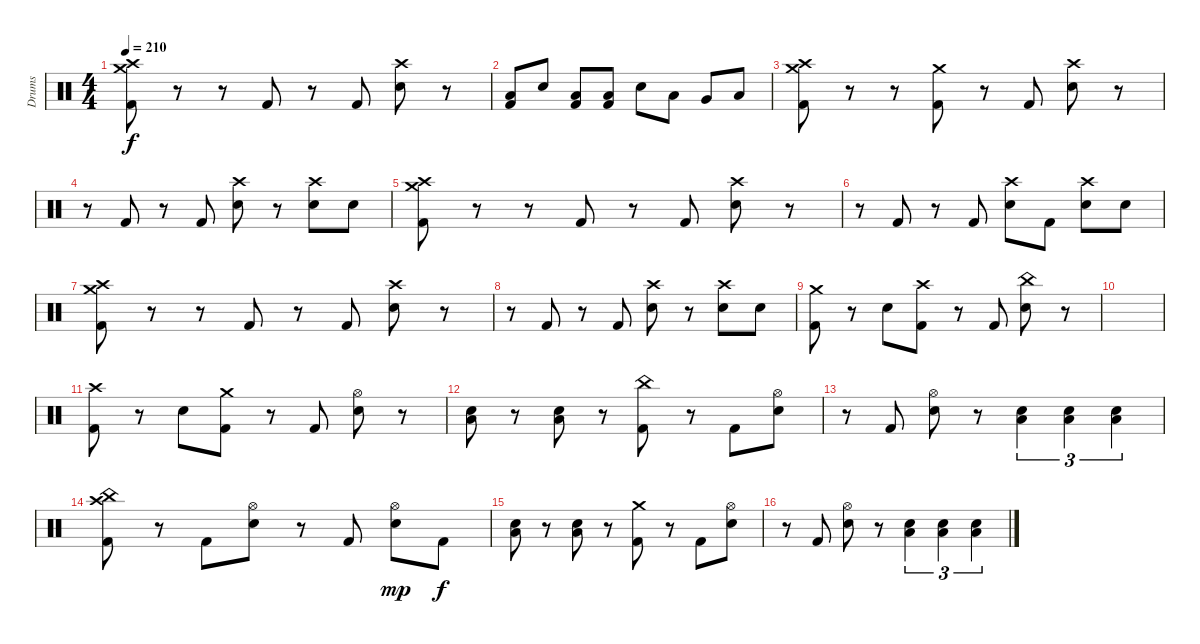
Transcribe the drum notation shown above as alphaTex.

\track ("Drums" "Drums") {instrument percussion}
\staff {score}
\articulation defaults
\ts (4 4)
\tempo 210
\clef neutral
\ks c
("Crash high (hit)" "Crash medium (hit)" "Kick (hit) 2").8{dy f} r.8 r.8 "Kick (hit) 2".8 r.8 "Kick (hit) 2".8 ("Crash high (hit)" "Electric Snare (hit)").8 r.8 |
("Low Floor Tom (hit)" "Kick (hit) 2").8 "Electric Snare (hit)".8 ("Low Floor Tom (hit)" "Kick (hit) 2").8 ("Low Floor Tom (hit)" "Kick (hit) 2").8 "Electric Snare (hit)".8 "Low Tom (hit)".8 "Very Low Tom (hit)".8 "Low Floor Tom (hit)".8 |
("Crash high (hit)" "Crash medium (hit)" "Kick (hit) 2").8 r.8 r.8 ("Crash medium (hit)" "Kick (hit) 2").8 r.8 "Kick (hit) 2".8 ("Crash high (hit)" "Electric Snare (hit)").8 r.8 |
r.8 "Kick (hit) 2".8 r.8 "Kick (hit) 2".8 ("Crash high (hit)" "Electric Snare (hit)").8 r.8 ("Crash high (hit)" "Electric Snare (hit)").8 "Electric Snare (hit)".8 |
("Crash high (hit)" "Crash medium (hit)" "Kick (hit) 2").8 r.8 r.8 "Kick (hit) 2".8 r.8 "Kick (hit) 2".8 ("Crash high (hit)" "Electric Snare (hit)").8 r.8 |
r.8 "Kick (hit) 2".8 r.8 "Kick (hit) 2".8 ("Crash high (hit)" "Electric Snare (hit)").8 "Kick (hit) 2".8 ("Crash high (hit)" "Electric Snare (hit)").8 "Electric Snare (hit)".8 |
("Crash high (hit)" "Crash medium (hit)" "Kick (hit) 2").8 r.8 r.8 "Kick (hit) 2".8 r.8 "Kick (hit) 2".8 ("Crash high (hit)" "Electric Snare (hit)").8 r.8 |
r.8 "Kick (hit) 2".8 r.8 "Kick (hit) 2".8 ("Crash high (hit)" "Electric Snare (hit)").8 r.8 ("Crash high (hit)" "Electric Snare (hit)").8 "Electric Snare (hit)".8 |
("Crash medium (hit)" "Kick (hit) 2").8 r.8 "Electric Snare (hit)".8 ("Crash high (hit)" "Kick (hit) 2").8 r.8 "Kick (hit) 2".8 ("China (hit)" "Electric Snare (hit)").8 r.8 |
|
("Crash high (hit)" "Kick (hit) 2").8 r.8 "Electric Snare (hit)".8 ("Crash medium (hit)" "Kick (hit) 2").8 r.8 "Kick (hit) 2".8 ("Hi-Hat (open)" "Electric Snare (hit)").8 r.8 |
("Low Floor Tom (hit)" "Electric Snare (hit)").8 r.8 ("Low Floor Tom (hit)" "Electric Snare (hit)").8 r.8 ("China (hit)" "Kick (hit) 2").8 r.8 "Kick (hit) 2".8 ("Hi-Hat (open)" "Electric Snare (hit)").8 |
r.8 "Kick (hit) 2".8 ("Hi-Hat (open)" "Electric Snare (hit)").8 r.8 ("Low Floor Tom (hit)" "Electric Snare (hit)").4{tu (3 2)} ("Low Floor Tom (hit)" "Electric Snare (hit)").4{tu (3 2)} ("Low Floor Tom (hit)" "Electric Snare (hit)").4{tu (3 2)} |
("Crash high (hit)" "China (hit)" "Kick (hit) 2").8 r.8 "Kick (hit) 2".8 ("Hi-Hat (open)" "Electric Snare (hit)").8 r.8 "Kick (hit) 2".8 ("Hi-Hat (open)" "Electric Snare (hit)").8{dy mp} "Kick (hit) 2".8{dy f} |
("Low Floor Tom (hit)" "Electric Snare (hit)").8 r.8 ("Low Floor Tom (hit)" "Electric Snare (hit)").8 r.8 ("Crash medium (hit)" "Kick (hit) 2").8 r.8 "Kick (hit) 2".8 ("Hi-Hat (open)" "Electric Snare (hit)").8 |
r.8 "Kick (hit) 2".8 ("Hi-Hat (open)" "Electric Snare (hit)").8 r.8 ("Low Floor Tom (hit)" "Electric Snare (hit)").4{tu (3 2)} ("Low Floor Tom (hit)" "Electric Snare (hit)").4{tu (3 2)} ("Low Floor Tom (hit)" "Electric Snare (hit)").4{tu (3 2)}
